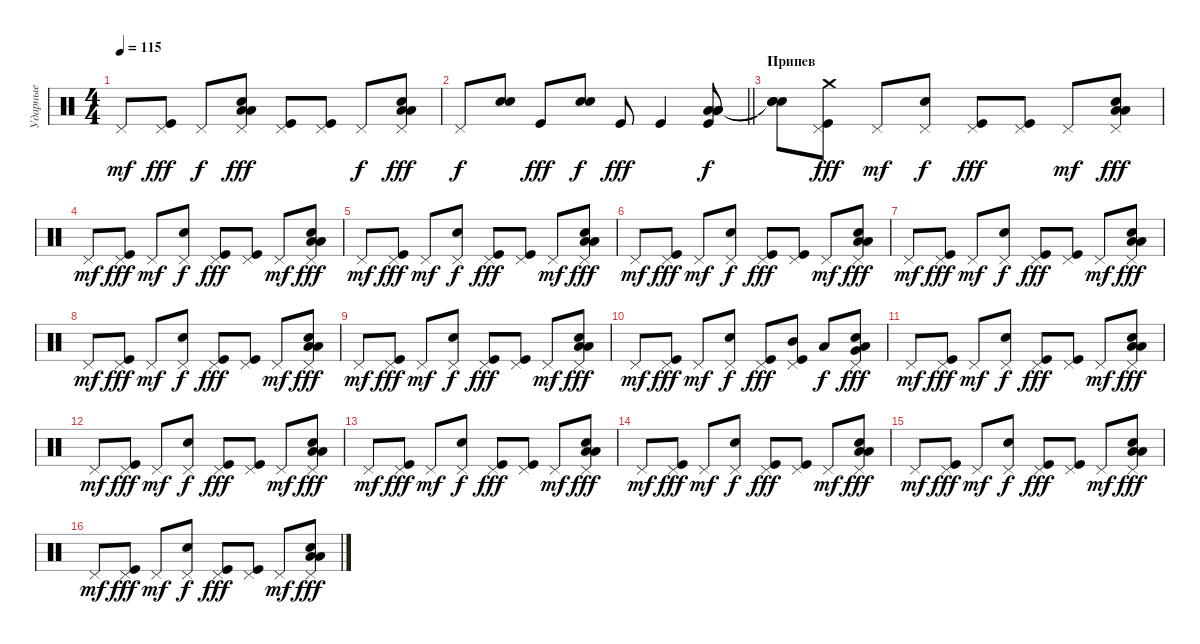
\track ("Ударные" "Ударные") {instrument percussion}
\staff {score}
\articulation defaults
\ts (4 4)
\tempo 115
\clef neutral
\ks c "Pedal Hi-Hat (hit)".8{dy mf}
("Pedal Hi-Hat (hit)" "Kick (hit)").8{dy fff} "Pedal Hi-Hat (hit)".8{dy f} ("Pedal Hi-Hat (hit)" "Low Tom (hit)" "Low Tom (hit)" "Electric Snare (hit)").8{dy fff} ("Pedal Hi-Hat (hit)" "Kick (hit)").8 ("Pedal Hi-Hat (hit)" "Kick (hit)").8 "Pedal Hi-Hat (hit)".8{dy f} ("Pedal Hi-Hat (hit)" "Low Tom (hit)" "Low Tom (hit)" "Electric Snare (hit)").8{dy fff} |
\barLineRight lightlight "Pedal Hi-Hat (hit)".8{dy f}
("Electric Snare (hit)" "Electric Snare (hit)").8 "Kick (hit)".8{dy fff} ("Electric Snare (hit)" "Electric Snare (hit)").8{dy f} "Kick (hit)".8{dy fff} "Kick (hit)".4 ("Low Floor Tom (hit)" "Low Floor Tom (hit)" "Low Tom (hit)" "Kick (hit)").8{dy f} |
\section ("" "Припев")
("Snare (hit)"{t} "Snare (hit)"{t} "Snare (hit)"{t}).8 ("Pedal Hi-Hat (hit)" "Kick (hit)" "Crash medium (hit)").8{dy fff} "Pedal Hi-Hat (hit)".8{dy mf} ("Pedal Hi-Hat (hit)" "Electric Snare (hit)").8{dy f} ("Pedal Hi-Hat (hit)" "Kick (hit)").8{dy fff} ("Pedal Hi-Hat (hit)" "Kick (hit)").8 "Pedal Hi-Hat (hit)".8{dy mf} ("Pedal Hi-Hat (hit)" "Low Tom (hit)" "Low Tom (hit)" "Electric Snare (hit)").8{dy fff} |
"Pedal Hi-Hat (hit)".8{dy mf} ("Pedal Hi-Hat (hit)" "Kick (hit)").8{dy fff} "Pedal Hi-Hat (hit)".8{dy mf} ("Pedal Hi-Hat (hit)" "Electric Snare (hit)").8{dy f} ("Pedal Hi-Hat (hit)" "Kick (hit)").8{dy fff} ("Pedal Hi-Hat (hit)" "Kick (hit)").8 "Pedal Hi-Hat (hit)".8{dy mf} ("Pedal Hi-Hat (hit)" "Low Tom (hit)" "Low Tom (hit)" "Electric Snare (hit)").8{dy fff} |
"Pedal Hi-Hat (hit)".8{dy mf} ("Pedal Hi-Hat (hit)" "Kick (hit)").8{dy fff} "Pedal Hi-Hat (hit)".8{dy mf} ("Pedal Hi-Hat (hit)" "Electric Snare (hit)").8{dy f} ("Pedal Hi-Hat (hit)" "Kick (hit)").8{dy fff} ("Pedal Hi-Hat (hit)" "Kick (hit)").8 "Pedal Hi-Hat (hit)".8{dy mf} ("Pedal Hi-Hat (hit)" "Low Tom (hit)" "Low Tom (hit)" "Electric Snare (hit)").8{dy fff} |
"Pedal Hi-Hat (hit)".8{dy mf} ("Pedal Hi-Hat (hit)" "Kick (hit)").8{dy fff} "Pedal Hi-Hat (hit)".8{dy mf} ("Pedal Hi-Hat (hit)" "Electric Snare (hit)").8{dy f} ("Pedal Hi-Hat (hit)" "Kick (hit)").8{dy fff} ("Pedal Hi-Hat (hit)" "Kick (hit)").8 "Pedal Hi-Hat (hit)".8{dy mf} ("Pedal Hi-Hat (hit)" "Low Tom (hit)" "Low Tom (hit)" "Electric Snare (hit)").8{dy fff} |
"Pedal Hi-Hat (hit)".8{dy mf} ("Pedal Hi-Hat (hit)" "Kick (hit)").8{dy fff} "Pedal Hi-Hat (hit)".8{dy mf} ("Pedal Hi-Hat (hit)" "Electric Snare (hit)").8{dy f} ("Pedal Hi-Hat (hit)" "Kick (hit)").8{dy fff} ("Pedal Hi-Hat (hit)" "Kick (hit)").8 "Pedal Hi-Hat (hit)".8{dy mf} ("Pedal Hi-Hat (hit)" "Low Tom (hit)" "Low Tom (hit)" "Electric Snare (hit)").8{dy fff} |
"Pedal Hi-Hat (hit)".8{dy mf} ("Pedal Hi-Hat (hit)" "Kick (hit)").8{dy fff} "Pedal Hi-Hat (hit)".8{dy mf} ("Pedal Hi-Hat (hit)" "Electric Snare (hit)").8{dy f} ("Pedal Hi-Hat (hit)" "Kick (hit)").8{dy fff} ("Pedal Hi-Hat (hit)" "Kick (hit)").8 "Pedal Hi-Hat (hit)".8{dy mf} ("Pedal Hi-Hat (hit)" "Low Tom (hit)" "Low Tom (hit)" "Electric Snare (hit)").8{dy fff} |
"Pedal Hi-Hat (hit)".8{dy mf} ("Pedal Hi-Hat (hit)" "Kick (hit)").8{dy fff} "Pedal Hi-Hat (hit)".8{dy mf} ("Pedal Hi-Hat (hit)" "Electric Snare (hit)").8{dy f} ("Pedal Hi-Hat (hit)" "Kick (hit)").8{dy fff} ("Pedal Hi-Hat (hit)" "Kick (hit)").8 "Pedal Hi-Hat (hit)".8{dy mf} ("Pedal Hi-Hat (hit)" "Low Tom (hit)" "Low Tom (hit)" "Electric Snare (hit)").8{dy fff} |
"Pedal Hi-Hat (hit)".8{dy mf} ("Pedal Hi-Hat (hit)" "Kick (hit)").8{dy fff} "Pedal Hi-Hat (hit)".8{dy mf} ("Pedal Hi-Hat (hit)" "Electric Snare (hit)").8{dy f} ("Pedal Hi-Hat (hit)" "Kick (hit)").8{dy fff} ("Pedal Hi-Hat (hit)" "Kick (hit)" "Mid Tom (hit)").8 "Low Tom (hit)".8{dy f} ("Pedal Hi-Hat (hit)" "Very Low Tom (hit)" "Low Tom (hit)" "Electric Snare (hit)").8{dy fff} |
"Pedal Hi-Hat (hit)".8{dy mf} ("Pedal Hi-Hat (hit)" "Kick (hit)").8{dy fff} "Pedal Hi-Hat (hit)".8{dy mf} ("Pedal Hi-Hat (hit)" "Electric Snare (hit)").8{dy f} ("Pedal Hi-Hat (hit)" "Kick (hit)").8{dy fff} ("Pedal Hi-Hat (hit)" "Kick (hit)").8 "Pedal Hi-Hat (hit)".8{dy mf} ("Pedal Hi-Hat (hit)" "Low Tom (hit)" "Low Tom (hit)" "Electric Snare (hit)").8{dy fff} |
"Pedal Hi-Hat (hit)".8{dy mf} ("Pedal Hi-Hat (hit)" "Kick (hit)").8{dy fff} "Pedal Hi-Hat (hit)".8{dy mf} ("Pedal Hi-Hat (hit)" "Electric Snare (hit)").8{dy f} ("Pedal Hi-Hat (hit)" "Kick (hit)").8{dy fff} ("Pedal Hi-Hat (hit)" "Kick (hit)").8 "Pedal Hi-Hat (hit)".8{dy mf} ("Pedal Hi-Hat (hit)" "Low Tom (hit)" "Low Tom (hit)" "Electric Snare (hit)").8{dy fff} |
"Pedal Hi-Hat (hit)".8{dy mf} ("Pedal Hi-Hat (hit)" "Kick (hit)").8{dy fff} "Pedal Hi-Hat (hit)".8{dy mf} ("Pedal Hi-Hat (hit)" "Electric Snare (hit)").8{dy f} ("Pedal Hi-Hat (hit)" "Kick (hit)").8{dy fff} ("Pedal Hi-Hat (hit)" "Kick (hit)").8 "Pedal Hi-Hat (hit)".8{dy mf} ("Pedal Hi-Hat (hit)" "Low Tom (hit)" "Low Tom (hit)" "Electric Snare (hit)").8{dy fff} |
"Pedal Hi-Hat (hit)".8{dy mf} ("Pedal Hi-Hat (hit)" "Kick (hit)").8{dy fff} "Pedal Hi-Hat (hit)".8{dy mf} ("Pedal Hi-Hat (hit)" "Electric Snare (hit)").8{dy f} ("Pedal Hi-Hat (hit)" "Kick (hit)").8{dy fff} ("Pedal Hi-Hat (hit)" "Kick (hit)").8 "Pedal Hi-Hat (hit)".8{dy mf} ("Pedal Hi-Hat (hit)" "Low Tom (hit)" "Low Tom (hit)" "Electric Snare (hit)").8{dy fff} |
"Pedal Hi-Hat (hit)".8{dy mf} ("Pedal Hi-Hat (hit)" "Kick (hit)").8{dy fff} "Pedal Hi-Hat (hit)".8{dy mf} ("Pedal Hi-Hat (hit)" "Electric Snare (hit)").8{dy f} ("Pedal Hi-Hat (hit)" "Kick (hit)").8{dy fff} ("Pedal Hi-Hat (hit)" "Kick (hit)").8 "Pedal Hi-Hat (hit)".8{dy mf} ("Pedal Hi-Hat (hit)" "Low Tom (hit)" "Low Tom (hit)" "Electric Snare (hit)").8{dy fff} |
"Pedal Hi-Hat (hit)".8{dy mf} ("Pedal Hi-Hat (hit)" "Kick (hit)").8{dy fff} "Pedal Hi-Hat (hit)".8{dy mf} ("Pedal Hi-Hat (hit)" "Electric Snare (hit)").8{dy f} ("Pedal Hi-Hat (hit)" "Kick (hit)").8{dy fff} ("Pedal Hi-Hat (hit)" "Kick (hit)").8 "Pedal Hi-Hat (hit)".8{dy mf} ("Pedal Hi-Hat (hit)" "Low Tom (hit)" "Low Tom (hit)" "Electric Snare (hit)").8{dy fff}
